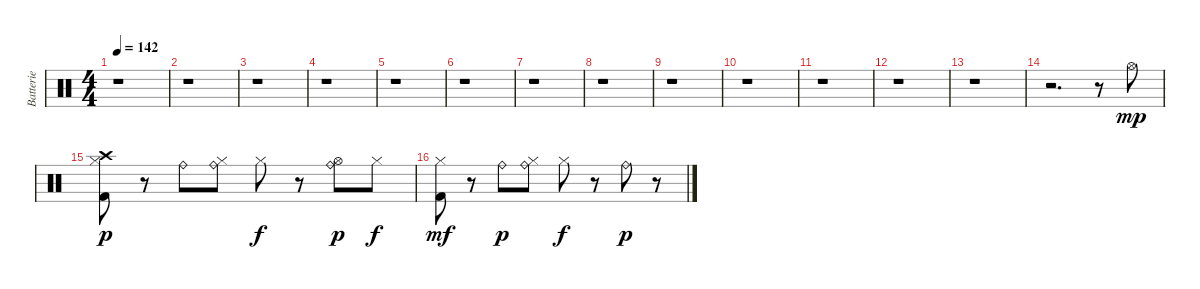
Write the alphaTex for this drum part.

\track ("Batterie" "Batterie") {instrument percussion}
\staff {score}
\articulation defaults
\ts (4 4)
\tempo 142
\clef neutral
\ks c
r.1{dy p} |
r.1 |
r.1 |
r.1 |
r.1 |
r.1 |
r.1 |
r.1 |
r.1 |
r.1 |
r.1 |
r.1 |
r.1 |
r.2{d} r.8 "Hi-Hat (open)".8{dy mp} |
("Kick (hit) 2" "Hi-Hat (closed)" "Crash high (hit)").8{dy p} r.8 "Ride (bell)".8 ("Hi-Hat (closed)" "Ride (bell)").8 "Hi-Hat (closed)".8{dy f} r.8 ("Hi-Hat (open)" "Ride (bell)").8{dy p} "Hi-Hat (closed)".8{dy f} |
("Kick (hit) 2" "Hi-Hat (closed)").8{dy mf} r.8 "Ride (bell)".8{dy p} ("Hi-Hat (closed)" "Ride (bell)").8 "Hi-Hat (closed)".8{dy f} r.8 "Ride (bell)".8{dy p} r.8
